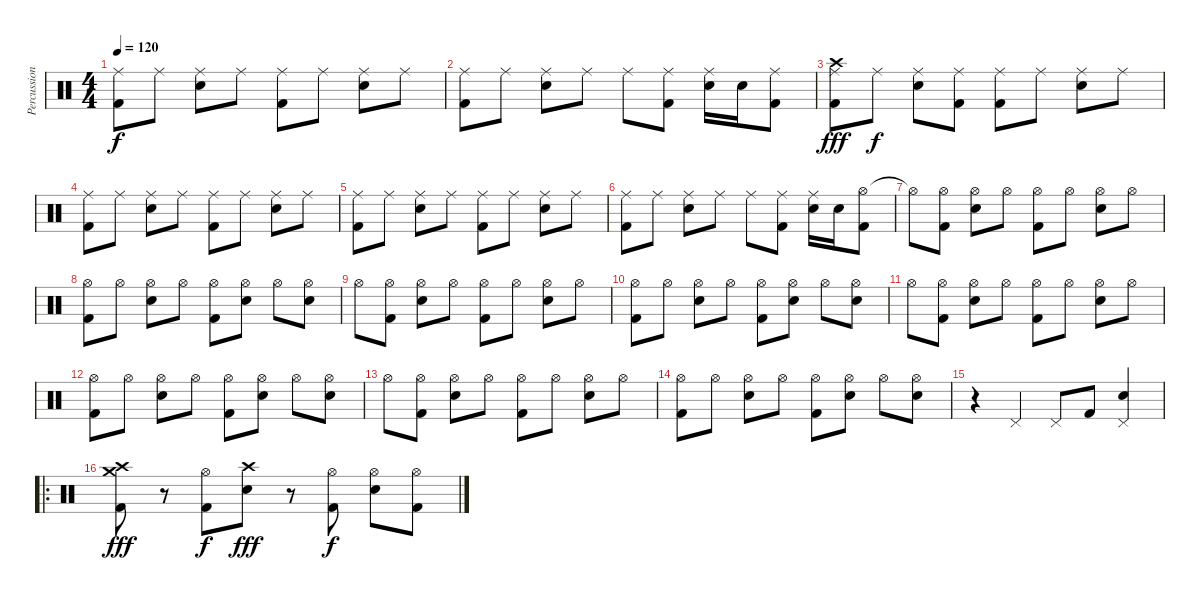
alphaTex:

\track ("Percussion" "Percussion") {instrument percussion}
\staff {score}
\articulation defaults
\ts (4 4)
\tempo 120
\clef neutral
\ks c
("Ride (middle)" "Kick (hit) 2").8{dy f} "Ride (middle)".8 ("Ride (middle)" "Electric Snare (hit)").8 "Ride (middle)".8 ("Ride (middle)" "Kick (hit) 2").8 "Ride (middle)".8 ("Ride (middle)" "Electric Snare (hit)").8 "Ride (middle)".8 |
("Ride (middle)" "Kick (hit) 2").8 "Ride (middle)".8 ("Ride (middle)" "Electric Snare (hit)").8 "Ride (middle)".8 "Ride (middle)".8 ("Ride (middle)" "Kick (hit) 2").8 ("Ride (middle)" "Electric Snare (hit)").16 "Electric Snare (hit)".16 ("Ride (middle)" "Kick (hit) 2").8 |
("Ride (middle)" "Crash high (hit)" "Kick (hit) 2").8{dy fff} "Ride (middle)".8{dy f} ("Ride (middle)" "Electric Snare (hit)").8 ("Ride (middle)" "Kick (hit) 2").8 ("Ride (middle)" "Kick (hit) 2").8 "Ride (middle)".8 ("Ride (middle)" "Electric Snare (hit)").8 "Ride (middle)".8 |
("Ride (middle)" "Kick (hit) 2").8 "Ride (middle)".8 ("Ride (middle)" "Electric Snare (hit)").8 "Ride (middle)".8 ("Ride (middle)" "Kick (hit) 2").8 "Ride (middle)".8 ("Ride (middle)" "Electric Snare (hit)").8 "Ride (middle)".8 |
("Ride (middle)" "Kick (hit) 2").8 "Ride (middle)".8 ("Ride (middle)" "Electric Snare (hit)").8 "Ride (middle)".8 ("Ride (middle)" "Kick (hit) 2").8 "Ride (middle)".8 ("Ride (middle)" "Electric Snare (hit)").8 "Ride (middle)".8 |
("Ride (middle)" "Kick (hit) 2").8 "Ride (middle)".8 ("Ride (middle)" "Electric Snare (hit)").8 "Ride (middle)".8 "Ride (middle)".8 ("Ride (middle)" "Kick (hit) 2").8 ("Ride (middle)" "Electric Snare (hit)").16 "Electric Snare (hit)".16 ("Hi-Hat (open)" "Kick (hit) 2").8 |
"Hi-Hat (open)"{t}.8 ("Hi-Hat (open)" "Kick (hit) 2").8 ("Hi-Hat (open)" "Electric Snare (hit)").8 "Hi-Hat (open)".8 ("Hi-Hat (open)" "Kick (hit) 2").8 "Hi-Hat (open)".8 ("Hi-Hat (open)" "Electric Snare (hit)").8 "Hi-Hat (open)".8 |
("Hi-Hat (open)" "Kick (hit) 2").8 "Hi-Hat (open)".8 ("Hi-Hat (open)" "Electric Snare (hit)").8 "Hi-Hat (open)".8 ("Hi-Hat (open)" "Kick (hit) 2").8 ("Hi-Hat (open)" "Electric Snare (hit)").8 "Hi-Hat (open)".8 ("Hi-Hat (open)" "Electric Snare (hit)").8 |
"Hi-Hat (open)".8 ("Hi-Hat (open)" "Kick (hit) 2").8 ("Hi-Hat (open)" "Electric Snare (hit)").8 "Hi-Hat (open)".8 ("Hi-Hat (open)" "Kick (hit) 2").8 "Hi-Hat (open)".8 ("Hi-Hat (open)" "Electric Snare (hit)").8 "Hi-Hat (open)".8 |
("Hi-Hat (open)" "Kick (hit) 2").8 "Hi-Hat (open)".8 ("Hi-Hat (open)" "Electric Snare (hit)").8 "Hi-Hat (open)".8 ("Hi-Hat (open)" "Kick (hit) 2").8 ("Hi-Hat (open)" "Electric Snare (hit)").8 "Hi-Hat (open)".8 ("Hi-Hat (open)" "Electric Snare (hit)").8 |
"Hi-Hat (open)".8 ("Hi-Hat (open)" "Kick (hit) 2").8 ("Hi-Hat (open)" "Electric Snare (hit)").8 "Hi-Hat (open)".8 ("Hi-Hat (open)" "Kick (hit) 2").8 "Hi-Hat (open)".8 ("Hi-Hat (open)" "Electric Snare (hit)").8 "Hi-Hat (open)".8 |
("Hi-Hat (open)" "Kick (hit) 2").8 "Hi-Hat (open)".8 ("Hi-Hat (open)" "Electric Snare (hit)").8 "Hi-Hat (open)".8 ("Hi-Hat (open)" "Kick (hit) 2").8 ("Hi-Hat (open)" "Electric Snare (hit)").8 "Hi-Hat (open)".8 ("Hi-Hat (open)" "Electric Snare (hit)").8 |
"Hi-Hat (open)".8 ("Hi-Hat (open)" "Kick (hit) 2").8 ("Hi-Hat (open)" "Electric Snare (hit)").8 "Hi-Hat (open)".8 ("Hi-Hat (open)" "Kick (hit) 2").8 "Hi-Hat (open)".8 ("Hi-Hat (open)" "Electric Snare (hit)").8 "Hi-Hat (open)".8 |
("Hi-Hat (open)" "Kick (hit) 2").8 "Hi-Hat (open)".8 ("Hi-Hat (open)" "Electric Snare (hit)").8 "Hi-Hat (open)".8 ("Hi-Hat (open)" "Kick (hit) 2").8 ("Hi-Hat (open)" "Electric Snare (hit)").8 "Hi-Hat (open)".8 ("Hi-Hat (open)" "Electric Snare (hit)").8 |
r.4 "Pedal Hi-Hat (hit)".4 "Pedal Hi-Hat (hit)".8 "Kick (hit) 2".8 ("Pedal Hi-Hat (hit)" "Electric Snare (hit)").4 |
\ro
("Crash high (hit)" "Crash medium (hit)" "Kick (hit) 2").8{dy fff} r.8 ("Hi-Hat (open)" "Kick (hit) 2").8{dy f} ("Crash high (hit)" "Electric Snare (hit)").8{dy fff} r.8 ("Hi-Hat (open)" "Kick (hit) 2").8{dy f} ("Hi-Hat (open)" "Electric Snare (hit)").8 ("Hi-Hat (open)" "Kick (hit) 2").8
